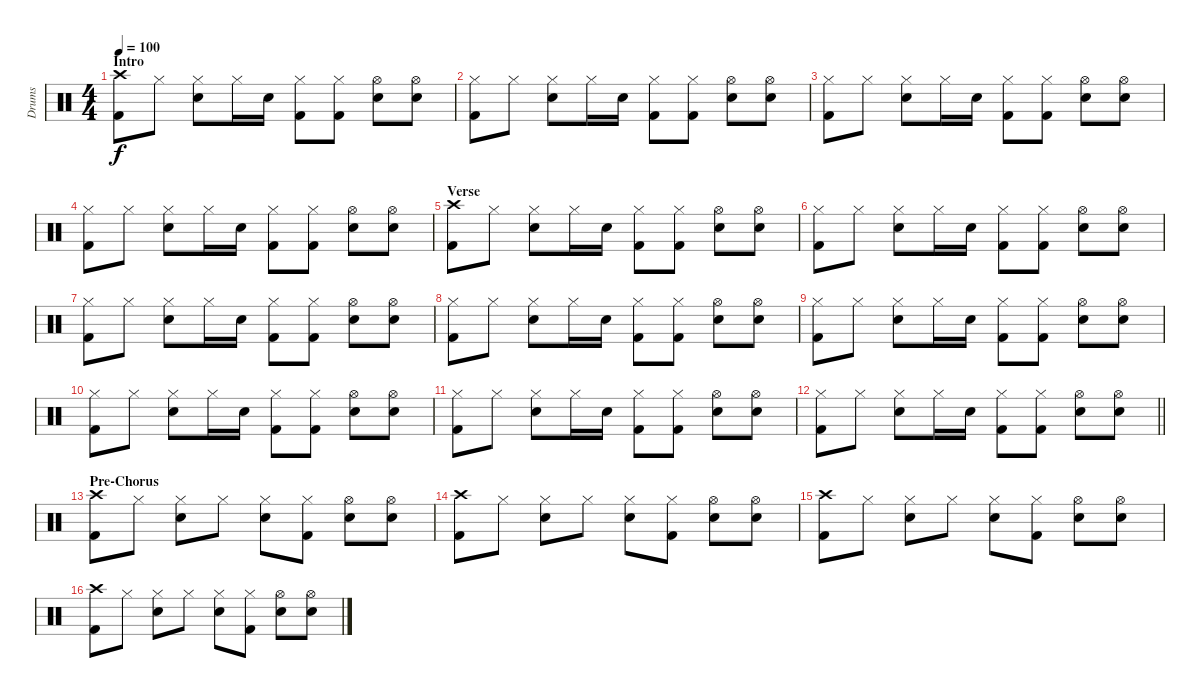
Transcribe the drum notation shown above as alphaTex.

\track ("Drums" "Drums") {instrument percussion}
\staff {score}
\articulation defaults
\ts (4 4)
\section ("" "Intro")
\tempo 100
\clef neutral
\ks c
("Crash high (hit)" "Kick (hit) 2").8{dy f} "Hi-Hat (closed)".8 ("Hi-Hat (closed)" "Electric Snare (hit)").8 "Hi-Hat (closed)".16 "Electric Snare (hit)".16 ("Hi-Hat (closed)" "Kick (hit) 2").8 ("Hi-Hat (closed)" "Kick (hit) 2").8 ("Hi-Hat (open)" "Electric Snare (hit)").8 ("Hi-Hat (open)" "Electric Snare (hit)").8 |
("Hi-Hat (closed)" "Kick (hit) 2").8 "Hi-Hat (closed)".8 ("Hi-Hat (closed)" "Electric Snare (hit)").8 "Hi-Hat (closed)".16 "Electric Snare (hit)".16 ("Hi-Hat (closed)" "Kick (hit) 2").8 ("Hi-Hat (closed)" "Kick (hit) 2").8 ("Hi-Hat (open)" "Electric Snare (hit)").8 ("Hi-Hat (open)" "Electric Snare (hit)").8 |
("Hi-Hat (closed)" "Kick (hit) 2").8 "Hi-Hat (closed)".8 ("Hi-Hat (closed)" "Electric Snare (hit)").8 "Hi-Hat (closed)".16 "Electric Snare (hit)".16 ("Hi-Hat (closed)" "Kick (hit) 2").8 ("Hi-Hat (closed)" "Kick (hit) 2").8 ("Hi-Hat (open)" "Electric Snare (hit)").8 ("Hi-Hat (open)" "Electric Snare (hit)").8 |
("Hi-Hat (closed)" "Kick (hit) 2").8 "Hi-Hat (closed)".8 ("Hi-Hat (closed)" "Electric Snare (hit)").8 "Hi-Hat (closed)".16 "Electric Snare (hit)".16 ("Hi-Hat (closed)" "Kick (hit) 2").8 ("Hi-Hat (closed)" "Kick (hit) 2").8 ("Hi-Hat (open)" "Electric Snare (hit)").8 ("Hi-Hat (open)" "Electric Snare (hit)").8 |
\section ("" "Verse")
("Crash high (hit)" "Kick (hit) 2").8 "Hi-Hat (closed)".8 ("Hi-Hat (closed)" "Electric Snare (hit)").8 "Hi-Hat (closed)".16 "Electric Snare (hit)".16 ("Hi-Hat (closed)" "Kick (hit) 2").8 ("Hi-Hat (closed)" "Kick (hit) 2").8 ("Hi-Hat (open)" "Electric Snare (hit)").8 ("Hi-Hat (open)" "Electric Snare (hit)").8 |
("Hi-Hat (closed)" "Kick (hit) 2").8 "Hi-Hat (closed)".8 ("Hi-Hat (closed)" "Electric Snare (hit)").8 "Hi-Hat (closed)".16 "Electric Snare (hit)".16 ("Hi-Hat (closed)" "Kick (hit) 2").8 ("Hi-Hat (closed)" "Kick (hit) 2").8 ("Hi-Hat (open)" "Electric Snare (hit)").8 ("Hi-Hat (open)" "Electric Snare (hit)").8 |
("Hi-Hat (closed)" "Kick (hit) 2").8 "Hi-Hat (closed)".8 ("Hi-Hat (closed)" "Electric Snare (hit)").8 "Hi-Hat (closed)".16 "Electric Snare (hit)".16 ("Hi-Hat (closed)" "Kick (hit) 2").8 ("Hi-Hat (closed)" "Kick (hit) 2").8 ("Hi-Hat (open)" "Electric Snare (hit)").8 ("Hi-Hat (open)" "Electric Snare (hit)").8 |
("Hi-Hat (closed)" "Kick (hit) 2").8 "Hi-Hat (closed)".8 ("Hi-Hat (closed)" "Electric Snare (hit)").8 "Hi-Hat (closed)".16 "Electric Snare (hit)".16 ("Hi-Hat (closed)" "Kick (hit) 2").8 ("Hi-Hat (closed)" "Kick (hit) 2").8 ("Hi-Hat (open)" "Electric Snare (hit)").8 ("Hi-Hat (open)" "Electric Snare (hit)").8 |
("Hi-Hat (closed)" "Kick (hit) 2").8 "Hi-Hat (closed)".8 ("Hi-Hat (closed)" "Electric Snare (hit)").8 "Hi-Hat (closed)".16 "Electric Snare (hit)".16 ("Hi-Hat (closed)" "Kick (hit) 2").8 ("Hi-Hat (closed)" "Kick (hit) 2").8 ("Hi-Hat (open)" "Electric Snare (hit)").8 ("Hi-Hat (open)" "Electric Snare (hit)").8 |
("Hi-Hat (closed)" "Kick (hit) 2").8 "Hi-Hat (closed)".8 ("Hi-Hat (closed)" "Electric Snare (hit)").8 "Hi-Hat (closed)".16 "Electric Snare (hit)".16 ("Hi-Hat (closed)" "Kick (hit) 2").8 ("Hi-Hat (closed)" "Kick (hit) 2").8 ("Hi-Hat (open)" "Electric Snare (hit)").8 ("Hi-Hat (open)" "Electric Snare (hit)").8 |
("Hi-Hat (closed)" "Kick (hit) 2").8 "Hi-Hat (closed)".8 ("Hi-Hat (closed)" "Electric Snare (hit)").8 "Hi-Hat (closed)".16 "Electric Snare (hit)".16 ("Hi-Hat (closed)" "Kick (hit) 2").8 ("Hi-Hat (closed)" "Kick (hit) 2").8 ("Hi-Hat (open)" "Electric Snare (hit)").8 ("Hi-Hat (open)" "Electric Snare (hit)").8 |
\barLineRight lightlight
("Hi-Hat (closed)" "Kick (hit) 2").8 "Hi-Hat (closed)".8 ("Hi-Hat (closed)" "Electric Snare (hit)").8 "Hi-Hat (closed)".16 "Electric Snare (hit)".16 ("Hi-Hat (closed)" "Kick (hit) 2").8 ("Hi-Hat (closed)" "Kick (hit) 2").8 ("Hi-Hat (open)" "Electric Snare (hit)").8 ("Hi-Hat (open)" "Electric Snare (hit)").8 |
\section ("" "Pre-Chorus")
("Crash high (hit)" "Kick (hit) 2").8 "Hi-Hat (closed)".8 ("Hi-Hat (closed)" "Electric Snare (hit)").8 "Hi-Hat (closed)".8 ("Hi-Hat (closed)" "Electric Snare (hit)").8 ("Hi-Hat (closed)" "Kick (hit) 2").8 ("Hi-Hat (open)" "Electric Snare (hit)").8 ("Hi-Hat (open)" "Electric Snare (hit)").8 |
("Crash high (hit)" "Kick (hit) 2").8 "Hi-Hat (closed)".8 ("Hi-Hat (closed)" "Electric Snare (hit)").8 "Hi-Hat (closed)".8 ("Hi-Hat (closed)" "Electric Snare (hit)").8 ("Hi-Hat (closed)" "Kick (hit) 2").8 ("Hi-Hat (open)" "Electric Snare (hit)").8 ("Hi-Hat (open)" "Electric Snare (hit)").8 |
("Crash high (hit)" "Kick (hit) 2").8 "Hi-Hat (closed)".8 ("Hi-Hat (closed)" "Electric Snare (hit)").8 "Hi-Hat (closed)".8 ("Hi-Hat (closed)" "Electric Snare (hit)").8 ("Hi-Hat (closed)" "Kick (hit) 2").8 ("Hi-Hat (open)" "Electric Snare (hit)").8 ("Hi-Hat (open)" "Electric Snare (hit)").8 |
("Crash high (hit)" "Kick (hit) 2").8 "Hi-Hat (closed)".8 ("Hi-Hat (closed)" "Electric Snare (hit)").8 "Hi-Hat (closed)".8 ("Hi-Hat (closed)" "Electric Snare (hit)").8 ("Hi-Hat (closed)" "Kick (hit) 2").8 ("Hi-Hat (open)" "Electric Snare (hit)").8 ("Hi-Hat (open)" "Electric Snare (hit)").8
